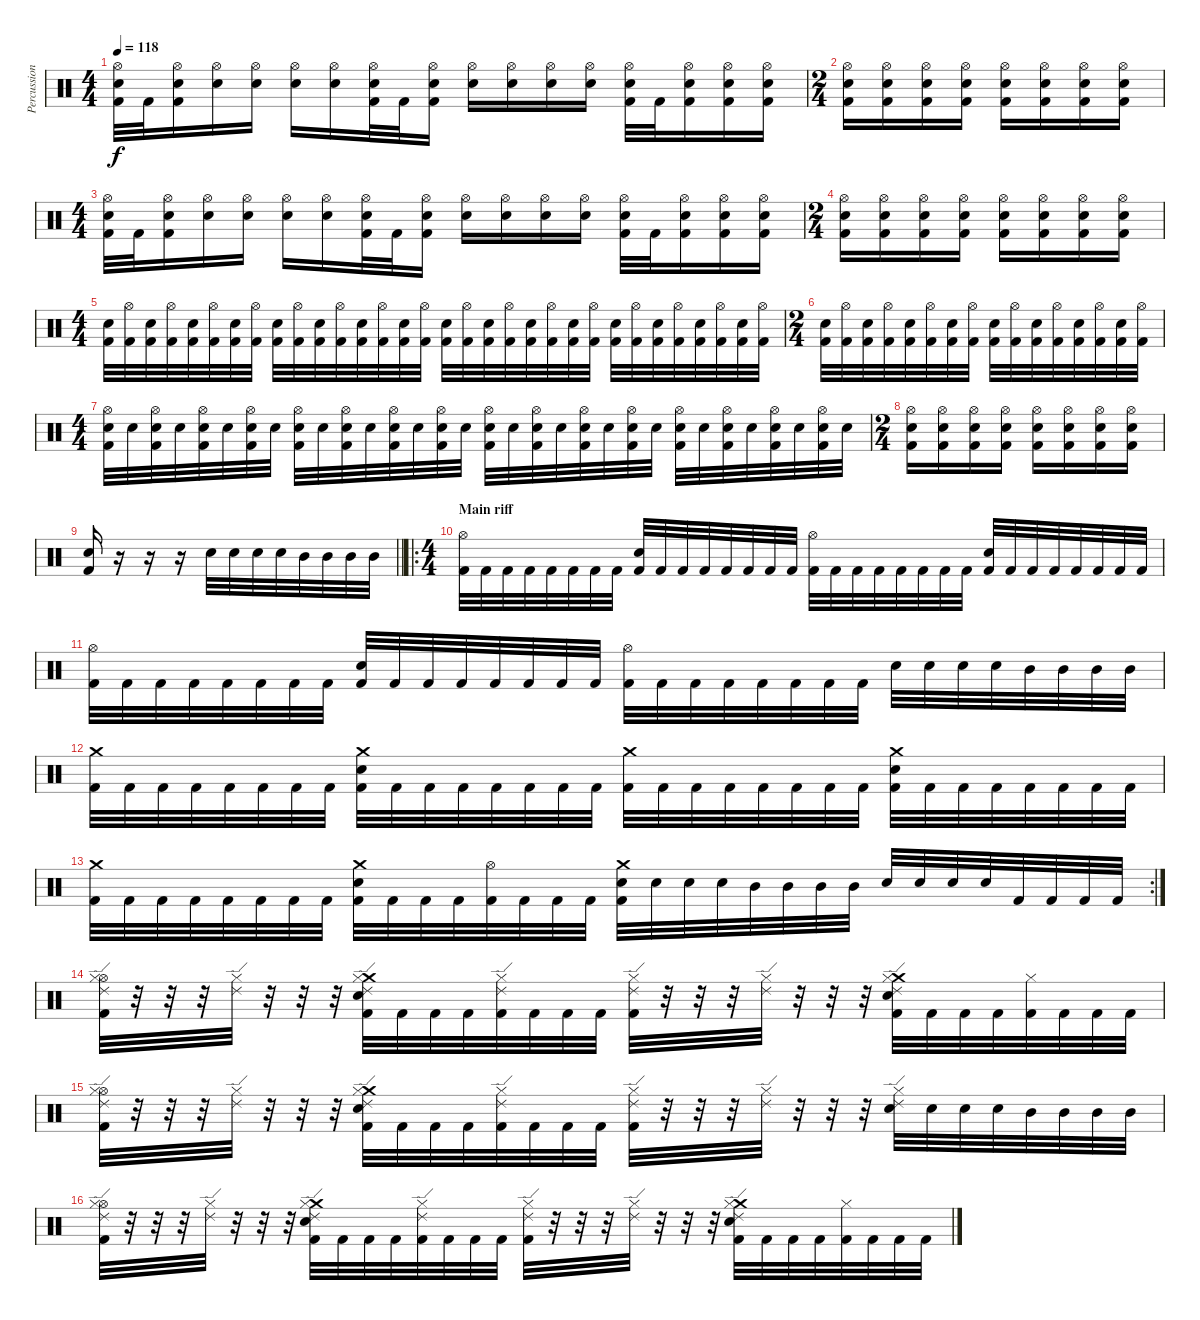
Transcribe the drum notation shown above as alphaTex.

\track ("Percussion" "Percussion") {instrument percussion}
\staff {score}
\articulation defaults
\ts (4 4)
\tempo 118
\clef neutral
\ks c
("Hi-Hat (open)" "Electric Snare (hit)" "Kick (hit) 2").32{dy f} "Kick (hit) 2".32 ("Hi-Hat (open)" "Electric Snare (hit)" "Kick (hit) 2").16 ("Hi-Hat (open)" "Electric Snare (hit)").16 ("Hi-Hat (open)" "Electric Snare (hit)").16 ("Hi-Hat (open)" "Electric Snare (hit)").16 ("Hi-Hat (open)" "Electric Snare (hit)").16 ("Hi-Hat (open)" "Electric Snare (hit)" "Kick (hit) 2").32 "Kick (hit) 2".32 ("Hi-Hat (open)" "Electric Snare (hit)" "Kick (hit) 2").16 ("Hi-Hat (open)" "Electric Snare (hit)").16 ("Hi-Hat (open)" "Electric Snare (hit)").16 ("Hi-Hat (open)" "Electric Snare (hit)").16 ("Hi-Hat (open)" "Electric Snare (hit)").16 ("Hi-Hat (open)" "Electric Snare (hit)" "Kick (hit) 2").32 "Kick (hit) 2".32 ("Hi-Hat (open)" "Electric Snare (hit)" "Kick (hit) 2").16 ("Hi-Hat (open)" "Electric Snare (hit)" "Kick (hit) 2").16 ("Hi-Hat (open)" "Electric Snare (hit)" "Kick (hit) 2").16 |
\ts (2 4)
("Hi-Hat (open)" "Electric Snare (hit)" "Kick (hit) 2").16 ("Hi-Hat (open)" "Electric Snare (hit)" "Kick (hit) 2").16 ("Hi-Hat (open)" "Electric Snare (hit)" "Kick (hit) 2").16 ("Hi-Hat (open)" "Electric Snare (hit)" "Kick (hit) 2").16 ("Hi-Hat (open)" "Electric Snare (hit)" "Kick (hit) 2").16 ("Hi-Hat (open)" "Electric Snare (hit)" "Kick (hit) 2").16 ("Hi-Hat (open)" "Electric Snare (hit)" "Kick (hit) 2").16 ("Hi-Hat (open)" "Electric Snare (hit)" "Kick (hit) 2").16 |
\ts (4 4)
("Hi-Hat (open)" "Electric Snare (hit)" "Kick (hit) 2").32 "Kick (hit) 2".32 ("Hi-Hat (open)" "Electric Snare (hit)" "Kick (hit) 2").16 ("Hi-Hat (open)" "Electric Snare (hit)").16 ("Hi-Hat (open)" "Electric Snare (hit)").16 ("Hi-Hat (open)" "Electric Snare (hit)").16 ("Hi-Hat (open)" "Electric Snare (hit)").16 ("Hi-Hat (open)" "Electric Snare (hit)" "Kick (hit) 2").32 "Kick (hit) 2".32 ("Hi-Hat (open)" "Electric Snare (hit)" "Kick (hit) 2").16 ("Hi-Hat (open)" "Electric Snare (hit)").16 ("Hi-Hat (open)" "Electric Snare (hit)").16 ("Hi-Hat (open)" "Electric Snare (hit)").16 ("Hi-Hat (open)" "Electric Snare (hit)").16 ("Hi-Hat (open)" "Electric Snare (hit)" "Kick (hit) 2").32 "Kick (hit) 2".32 ("Hi-Hat (open)" "Electric Snare (hit)" "Kick (hit) 2").16 ("Hi-Hat (open)" "Electric Snare (hit)" "Kick (hit) 2").16 ("Hi-Hat (open)" "Electric Snare (hit)" "Kick (hit) 2").16 |
\ts (2 4)
("Hi-Hat (open)" "Electric Snare (hit)" "Kick (hit) 2").16 ("Hi-Hat (open)" "Electric Snare (hit)" "Kick (hit) 2").16 ("Hi-Hat (open)" "Electric Snare (hit)" "Kick (hit) 2").16 ("Hi-Hat (open)" "Electric Snare (hit)" "Kick (hit) 2").16 ("Hi-Hat (open)" "Electric Snare (hit)" "Kick (hit) 2").16 ("Hi-Hat (open)" "Electric Snare (hit)" "Kick (hit) 2").16 ("Hi-Hat (open)" "Electric Snare (hit)" "Kick (hit) 2").16 ("Hi-Hat (open)" "Electric Snare (hit)" "Kick (hit) 2").16 |
\ts (4 4)
("Electric Snare (hit)" "Kick (hit) 2").32 ("Hi-Hat (open)" "Kick (hit) 2").32 ("Electric Snare (hit)" "Kick (hit) 2").32 ("Hi-Hat (open)" "Kick (hit) 2").32 ("Electric Snare (hit)" "Kick (hit) 2").32 ("Hi-Hat (open)" "Kick (hit) 2").32 ("Electric Snare (hit)" "Kick (hit) 2").32 ("Hi-Hat (open)" "Kick (hit) 2").32 ("Electric Snare (hit)" "Kick (hit) 2").32 ("Hi-Hat (open)" "Kick (hit) 2").32 ("Electric Snare (hit)" "Kick (hit) 2").32 ("Hi-Hat (open)" "Kick (hit) 2").32 ("Electric Snare (hit)" "Kick (hit) 2").32 ("Hi-Hat (open)" "Kick (hit) 2").32 ("Electric Snare (hit)" "Kick (hit) 2").32 ("Hi-Hat (open)" "Kick (hit) 2").32 ("Electric Snare (hit)" "Kick (hit) 2").32 ("Hi-Hat (open)" "Kick (hit) 2").32 ("Electric Snare (hit)" "Kick (hit) 2").32 ("Hi-Hat (open)" "Kick (hit) 2").32 ("Electric Snare (hit)" "Kick (hit) 2").32 ("Hi-Hat (open)" "Kick (hit) 2").32 ("Electric Snare (hit)" "Kick (hit) 2").32 ("Hi-Hat (open)" "Kick (hit) 2").32 ("Electric Snare (hit)" "Kick (hit) 2").32 ("Hi-Hat (open)" "Kick (hit) 2").32 ("Electric Snare (hit)" "Kick (hit) 2").32 ("Hi-Hat (open)" "Kick (hit) 2").32 ("Electric Snare (hit)" "Kick (hit) 2").32 ("Hi-Hat (open)" "Kick (hit) 2").32 ("Electric Snare (hit)" "Kick (hit) 2").32 ("Hi-Hat (open)" "Kick (hit) 2").32 |
\ts (2 4)
("Electric Snare (hit)" "Kick (hit) 2").32 ("Hi-Hat (open)" "Kick (hit) 2").32 ("Electric Snare (hit)" "Kick (hit) 2").32 ("Hi-Hat (open)" "Kick (hit) 2").32 ("Electric Snare (hit)" "Kick (hit) 2").32 ("Hi-Hat (open)" "Kick (hit) 2").32 ("Electric Snare (hit)" "Kick (hit) 2").32 ("Hi-Hat (open)" "Kick (hit) 2").32 ("Electric Snare (hit)" "Kick (hit) 2").32 ("Hi-Hat (open)" "Kick (hit) 2").32 ("Electric Snare (hit)" "Kick (hit) 2").32 ("Hi-Hat (open)" "Kick (hit) 2").32 ("Electric Snare (hit)" "Kick (hit) 2").32 ("Hi-Hat (open)" "Kick (hit) 2").32 ("Electric Snare (hit)" "Kick (hit) 2").32 ("Hi-Hat (open)" "Kick (hit) 2").32 |
\ts (4 4)
("Hi-Hat (open)" "Electric Snare (hit)" "Kick (hit) 2").32 "Electric Snare (hit)".32 ("Hi-Hat (open)" "Electric Snare (hit)" "Kick (hit) 2").32 "Electric Snare (hit)".32 ("Hi-Hat (open)" "Electric Snare (hit)" "Kick (hit) 2").32 "Electric Snare (hit)".32 ("Hi-Hat (open)" "Electric Snare (hit)" "Kick (hit) 2").32 "Electric Snare (hit)".32 ("Hi-Hat (open)" "Electric Snare (hit)" "Kick (hit) 2").32 "Electric Snare (hit)".32 ("Hi-Hat (open)" "Electric Snare (hit)" "Kick (hit) 2").32 "Electric Snare (hit)".32 ("Hi-Hat (open)" "Electric Snare (hit)" "Kick (hit) 2").32 "Electric Snare (hit)".32 ("Hi-Hat (open)" "Electric Snare (hit)" "Kick (hit) 2").32 "Electric Snare (hit)".32 ("Hi-Hat (open)" "Electric Snare (hit)" "Kick (hit) 2").32 "Electric Snare (hit)".32 ("Hi-Hat (open)" "Electric Snare (hit)" "Kick (hit) 2").32 "Electric Snare (hit)".32 ("Hi-Hat (open)" "Electric Snare (hit)" "Kick (hit) 2").32 "Electric Snare (hit)".32 ("Hi-Hat (open)" "Electric Snare (hit)" "Kick (hit) 2").32 "Electric Snare (hit)".32 ("Hi-Hat (open)" "Electric Snare (hit)" "Kick (hit) 2").32 "Electric Snare (hit)".32 ("Hi-Hat (open)" "Electric Snare (hit)" "Kick (hit) 2").32 "Electric Snare (hit)".32 ("Hi-Hat (open)" "Electric Snare (hit)" "Kick (hit) 2").32 "Electric Snare (hit)".32 ("Hi-Hat (open)" "Electric Snare (hit)" "Kick (hit) 2").32 "Electric Snare (hit)".32 |
\ts (2 4)
("Hi-Hat (open)" "Electric Snare (hit)" "Kick (hit) 2").16 ("Hi-Hat (open)" "Electric Snare (hit)" "Kick (hit) 2").16 ("Hi-Hat (open)" "Electric Snare (hit)" "Kick (hit) 2").16 ("Hi-Hat (open)" "Electric Snare (hit)" "Kick (hit) 2").16 ("Hi-Hat (open)" "Electric Snare (hit)" "Kick (hit) 2").16 ("Hi-Hat (open)" "Electric Snare (hit)" "Kick (hit) 2").16 ("Hi-Hat (open)" "Electric Snare (hit)" "Kick (hit) 2").16 ("Hi-Hat (open)" "Electric Snare (hit)" "Kick (hit) 2").16 |
\barLineRight lightlight
("Electric Snare (hit)" "Kick (hit) 2").16 r.16 r.16 r.16 "Electric Snare (hit)".32 "Electric Snare (hit)".32 "Electric Snare (hit)".32 "Electric Snare (hit)".32 "Mid Tom (hit)".32 "Mid Tom (hit)".32 "Mid Tom (hit)".32 "Mid Tom (hit)".32 |
\ro
\ts (4 4)
\section ("" "Main riff")
("Hi-Hat (open)" "Kick (hit) 2").32 "Kick (hit) 2".32 "Kick (hit) 2".32 "Kick (hit) 2".32 "Kick (hit) 2".32 "Kick (hit) 2".32 "Kick (hit) 2".32 "Kick (hit) 2".32 ("Electric Snare (hit)" "Kick (hit) 2").32 "Kick (hit) 2".32 "Kick (hit) 2".32 "Kick (hit) 2".32 "Kick (hit) 2".32 "Kick (hit) 2".32 "Kick (hit) 2".32 "Kick (hit) 2".32 ("Hi-Hat (open)" "Kick (hit) 2").32 "Kick (hit) 2".32 "Kick (hit) 2".32 "Kick (hit) 2".32 "Kick (hit) 2".32 "Kick (hit) 2".32 "Kick (hit) 2".32 "Kick (hit) 2".32 ("Electric Snare (hit)" "Kick (hit) 2").32 "Kick (hit) 2".32 "Kick (hit) 2".32 "Kick (hit) 2".32 "Kick (hit) 2".32 "Kick (hit) 2".32 "Kick (hit) 2".32 "Kick (hit) 2".32 |
("Hi-Hat (open)" "Kick (hit) 2").32 "Kick (hit) 2".32 "Kick (hit) 2".32 "Kick (hit) 2".32 "Kick (hit) 2".32 "Kick (hit) 2".32 "Kick (hit) 2".32 "Kick (hit) 2".32 ("Electric Snare (hit)" "Kick (hit) 2").32 "Kick (hit) 2".32 "Kick (hit) 2".32 "Kick (hit) 2".32 "Kick (hit) 2".32 "Kick (hit) 2".32 "Kick (hit) 2".32 "Kick (hit) 2".32 ("Hi-Hat (open)" "Kick (hit) 2").32 "Kick (hit) 2".32 "Kick (hit) 2".32 "Kick (hit) 2".32 "Kick (hit) 2".32 "Kick (hit) 2".32 "Kick (hit) 2".32 "Kick (hit) 2".32 "Electric Snare (hit)".32 "Electric Snare (hit)".32 "Electric Snare (hit)".32 "Electric Snare (hit)".32 "Mid Tom (hit)".32 "Mid Tom (hit)".32 "Mid Tom (hit)".32 "Mid Tom (hit)".32 |
("Crash medium (hit)" "Kick (hit) 2").32 "Kick (hit) 2".32 "Kick (hit) 2".32 "Kick (hit) 2".32 "Kick (hit) 2".32 "Kick (hit) 2".32 "Kick (hit) 2".32 "Kick (hit) 2".32 ("Crash medium (hit)" "Electric Snare (hit)" "Kick (hit) 2").32 "Kick (hit) 2".32 "Kick (hit) 2".32 "Kick (hit) 2".32 "Kick (hit) 2".32 "Kick (hit) 2".32 "Kick (hit) 2".32 "Kick (hit) 2".32 ("Crash medium (hit)" "Kick (hit) 2").32 "Kick (hit) 2".32 "Kick (hit) 2".32 "Kick (hit) 2".32 "Kick (hit) 2".32 "Kick (hit) 2".32 "Kick (hit) 2".32 "Kick (hit) 2".32 ("Crash medium (hit)" "Electric Snare (hit)" "Kick (hit) 2").32 "Kick (hit) 2".32 "Kick (hit) 2".32 "Kick (hit) 2".32 "Kick (hit) 2".32 "Kick (hit) 2".32 "Kick (hit) 2".32 "Kick (hit) 2".32 |
\rc 2
("Crash medium (hit)" "Kick (hit) 2").32 "Kick (hit) 2".32 "Kick (hit) 2".32 "Kick (hit) 2".32 "Kick (hit) 2".32 "Kick (hit) 2".32 "Kick (hit) 2".32 "Kick (hit) 2".32 ("Crash medium (hit)" "Electric Snare (hit)" "Kick (hit) 2").32 "Kick (hit) 2".32 "Kick (hit) 2".32 "Kick (hit) 2".32 ("Hi-Hat (open)" "Kick (hit) 2").32 "Kick (hit) 2".32 "Kick (hit) 2".32 "Kick (hit) 2".32 ("Crash medium (hit)" "Electric Snare (hit)" "Kick (hit) 2").32 "Electric Snare (hit)".32 "Electric Snare (hit)".32 "Electric Snare (hit)".32 "Mid Tom (hit)".32 "Mid Tom (hit)".32 "Mid Tom (hit)".32 "Mid Tom (hit)".32 "Electric Snare (hit)".32 "Electric Snare (hit)".32 "Electric Snare (hit)".32 "Electric Snare (hit)".32 "Kick (hit) 2".32 "Kick (hit) 2".32 "Kick (hit) 2".32 "Kick (hit) 2".32 |
("Hi-Hat (open)" "Ride (edge) 2" "Hi-Hat (closed)" "Kick (hit) 2").32 r.32 r.32 r.32 ("Ride (edge) 2" "Hi-Hat (closed)").32 r.32 r.32 r.32 ("Crash medium (hit)" "Ride (edge) 2" "Hi-Hat (closed)" "Electric Snare (hit)" "Kick (hit) 2").32 "Kick (hit) 2".32 "Kick (hit) 2".32 "Kick (hit) 2".32 ("Ride (edge) 2" "Hi-Hat (closed)" "Kick (hit) 2").32 "Kick (hit) 2".32 "Kick (hit) 2".32 "Kick (hit) 2".32 ("Ride (edge) 2" "Hi-Hat (closed)" "Kick (hit) 2").32 r.32 r.32 r.32 ("Ride (edge) 2" "Hi-Hat (closed)").32 r.32 r.32 r.32 ("Crash medium (hit)" "Ride (edge) 2" "Hi-Hat (closed)" "Electric Snare (hit)" "Kick (hit) 2").32 "Kick (hit) 2".32 "Kick (hit) 2".32 "Kick (hit) 2".32 ("Hi-Hat (closed)" "Kick (hit) 2").32 "Kick (hit) 2".32 "Kick (hit) 2".32 "Kick (hit) 2".32 |
("Hi-Hat (open)" "Ride (edge) 2" "Hi-Hat (closed)" "Kick (hit) 2").32 r.32 r.32 r.32 ("Ride (edge) 2" "Hi-Hat (closed)").32 r.32 r.32 r.32 ("Crash medium (hit)" "Ride (edge) 2" "Hi-Hat (closed)" "Electric Snare (hit)" "Kick (hit) 2").32 "Kick (hit) 2".32 "Kick (hit) 2".32 "Kick (hit) 2".32 ("Ride (edge) 2" "Hi-Hat (closed)" "Kick (hit) 2").32 "Kick (hit) 2".32 "Kick (hit) 2".32 "Kick (hit) 2".32 ("Ride (edge) 2" "Hi-Hat (closed)" "Kick (hit) 2").32 r.32 r.32 r.32 ("Ride (edge) 2" "Hi-Hat (closed)").32 r.32 r.32 r.32 ("Ride (edge) 2" "Hi-Hat (closed)" "Electric Snare (hit)").32 "Electric Snare (hit)".32 "Electric Snare (hit)".32 "Electric Snare (hit)".32 "Mid Tom (hit)".32 "Mid Tom (hit)".32 "Mid Tom (hit)".32 "Mid Tom (hit)".32 |
("Hi-Hat (open)" "Ride (edge) 2" "Hi-Hat (closed)" "Kick (hit) 2").32 r.32 r.32 r.32 ("Ride (edge) 2" "Hi-Hat (closed)").32 r.32 r.32 r.32 ("Crash medium (hit)" "Ride (edge) 2" "Hi-Hat (closed)" "Electric Snare (hit)" "Kick (hit) 2").32 "Kick (hit) 2".32 "Kick (hit) 2".32 "Kick (hit) 2".32 ("Ride (edge) 2" "Hi-Hat (closed)" "Kick (hit) 2").32 "Kick (hit) 2".32 "Kick (hit) 2".32 "Kick (hit) 2".32 ("Ride (edge) 2" "Hi-Hat (closed)" "Kick (hit) 2").32 r.32 r.32 r.32 ("Ride (edge) 2" "Hi-Hat (closed)").32 r.32 r.32 r.32 ("Crash medium (hit)" "Ride (edge) 2" "Hi-Hat (closed)" "Electric Snare (hit)" "Kick (hit) 2").32 "Kick (hit) 2".32 "Kick (hit) 2".32 "Kick (hit) 2".32 ("Hi-Hat (closed)" "Kick (hit) 2").32 "Kick (hit) 2".32 "Kick (hit) 2".32 "Kick (hit) 2".32
